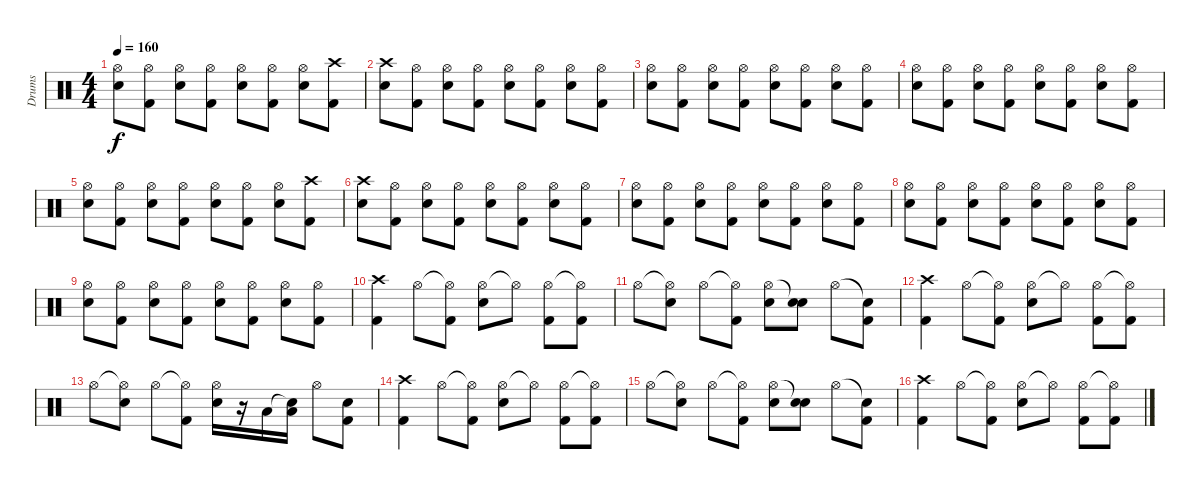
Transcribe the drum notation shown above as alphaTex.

\track ("Drums" "Drums") {instrument percussion}
\staff {score}
\articulation defaults
\ts (4 4)
\tempo 160
\clef neutral
\ks c
("Hi-Hat (open)" "Snare (hit) 2").8{dy f} ("Hi-Hat (open)" "Kick (hit) 2").8 ("Hi-Hat (open)" "Snare (hit) 2").8 ("Hi-Hat (open)" "Kick (hit) 2").8 ("Hi-Hat (open)" "Snare (hit) 2").8 ("Hi-Hat (open)" "Kick (hit) 2").8 ("Hi-Hat (open)" "Snare (hit) 2").8 ("Crash high (hit)" "Kick (hit) 2").8 |
("Crash high (hit)" "Snare (hit) 2").8 ("Hi-Hat (open)" "Kick (hit) 2").8 ("Hi-Hat (open)" "Snare (hit) 2").8 ("Hi-Hat (open)" "Kick (hit) 2").8 ("Hi-Hat (open)" "Snare (hit) 2").8 ("Hi-Hat (open)" "Kick (hit) 2").8 ("Hi-Hat (open)" "Snare (hit) 2").8 ("Hi-Hat (open)" "Kick (hit) 2").8 |
("Hi-Hat (open)" "Snare (hit) 2").8 ("Hi-Hat (open)" "Kick (hit) 2").8 ("Hi-Hat (open)" "Snare (hit) 2").8 ("Hi-Hat (open)" "Kick (hit) 2").8 ("Hi-Hat (open)" "Snare (hit) 2").8 ("Hi-Hat (open)" "Kick (hit) 2").8 ("Hi-Hat (open)" "Snare (hit) 2").8 ("Hi-Hat (open)" "Kick (hit) 2").8 |
("Hi-Hat (open)" "Snare (hit) 2").8 ("Hi-Hat (open)" "Kick (hit) 2").8 ("Hi-Hat (open)" "Snare (hit) 2").8 ("Hi-Hat (open)" "Kick (hit) 2").8 ("Hi-Hat (open)" "Snare (hit) 2").8 ("Hi-Hat (open)" "Kick (hit) 2").8 ("Hi-Hat (open)" "Snare (hit) 2").8 ("Hi-Hat (open)" "Kick (hit) 2").8 |
("Hi-Hat (open)" "Snare (hit) 2").8 ("Hi-Hat (open)" "Kick (hit) 2").8 ("Hi-Hat (open)" "Snare (hit) 2").8 ("Hi-Hat (open)" "Kick (hit) 2").8 ("Hi-Hat (open)" "Snare (hit) 2").8 ("Hi-Hat (open)" "Kick (hit) 2").8 ("Hi-Hat (open)" "Snare (hit) 2").8 ("Crash high (hit)" "Kick (hit) 2").8 |
("Crash high (hit)" "Snare (hit) 2").8 ("Hi-Hat (open)" "Kick (hit) 2").8 ("Hi-Hat (open)" "Snare (hit) 2").8 ("Hi-Hat (open)" "Kick (hit) 2").8 ("Hi-Hat (open)" "Snare (hit) 2").8 ("Hi-Hat (open)" "Kick (hit) 2").8 ("Hi-Hat (open)" "Snare (hit) 2").8 ("Hi-Hat (open)" "Kick (hit) 2").8 |
("Hi-Hat (open)" "Snare (hit) 2").8 ("Hi-Hat (open)" "Kick (hit) 2").8 ("Hi-Hat (open)" "Snare (hit) 2").8 ("Hi-Hat (open)" "Kick (hit) 2").8 ("Hi-Hat (open)" "Snare (hit) 2").8 ("Hi-Hat (open)" "Kick (hit) 2").8 ("Hi-Hat (open)" "Snare (hit) 2").8 ("Hi-Hat (open)" "Kick (hit) 2").8 |
("Hi-Hat (open)" "Snare (hit) 2").8 ("Hi-Hat (open)" "Kick (hit) 2").8 ("Hi-Hat (open)" "Snare (hit) 2").8 ("Hi-Hat (open)" "Kick (hit) 2").8 ("Hi-Hat (open)" "Snare (hit) 2").8 ("Hi-Hat (open)" "Kick (hit) 2").8 ("Hi-Hat (open)" "Snare (hit) 2").8 ("Hi-Hat (open)" "Kick (hit) 2").8 |
("Hi-Hat (open)" "Snare (hit) 2").8 ("Hi-Hat (open)" "Kick (hit) 2").8 ("Hi-Hat (open)" "Snare (hit) 2").8 ("Hi-Hat (open)" "Kick (hit) 2").8 ("Hi-Hat (open)" "Snare (hit) 2").8 ("Hi-Hat (open)" "Kick (hit) 2").8 ("Hi-Hat (open)" "Snare (hit) 2"{tr (38 32)}).8 ("Hi-Hat (open)" "Kick (hit) 2").8 |
("Crash high (hit)" "Kick (hit) 2").4 "Hi-Hat (open)".8 ("Hi-Hat (open)"{t} "Kick (hit) 2").8 ("Hi-Hat (open)" "Snare (hit) 2").8 "Hi-Hat (open)"{t}.8 ("Hi-Hat (open)" "Kick (hit) 2").8 ("Hi-Hat (open)"{t} "Kick (hit) 2").8 |
"Hi-Hat (open)".8 ("Hi-Hat (open)"{t} "Snare (hit) 2").8 "Hi-Hat (open)".8 ("Hi-Hat (open)"{t} "Kick (hit) 2").8 ("Hi-Hat (open)" "Snare (hit) 2").8 ("Snare (hit)"{t} "Snare (hit) 2").8 "Hi-Hat (open)".8 ("Snare (hit)"{t} "Kick (hit) 2").8 |
("Crash high (hit)" "Kick (hit) 2").4 "Hi-Hat (open)".8 ("Hi-Hat (open)"{t} "Kick (hit) 2").8 ("Hi-Hat (open)" "Snare (hit) 2").8 "Hi-Hat (open)"{t}.8 ("Hi-Hat (open)" "Kick (hit) 2").8 ("Hi-Hat (open)"{t} "Kick (hit) 2").8 |
"Hi-Hat (open)".8 ("Hi-Hat (open)"{t} "Snare (hit) 2").8 "Hi-Hat (open)".8 ("Hi-Hat (open)"{t} "Kick (hit) 2").8 ("Hi-Hat (open)" "Snare (hit) 2").16 r.16 "Low Tom (hit)".16 ("Snare (hit)"{t} "Low Floor Tom (hit)").16 "Hi-Hat (open)".8 ("Snare (hit) 2" "Kick (hit) 2").8 |
("Crash high (hit)" "Kick (hit) 2").4 "Hi-Hat (open)".8 ("Hi-Hat (open)"{t} "Kick (hit) 2").8 ("Hi-Hat (open)" "Snare (hit) 2").8 "Hi-Hat (open)"{t}.8 ("Hi-Hat (open)" "Kick (hit) 2").8 ("Hi-Hat (open)"{t} "Kick (hit) 2").8 |
"Hi-Hat (open)".8 ("Hi-Hat (open)"{t} "Snare (hit) 2").8 "Hi-Hat (open)".8 ("Hi-Hat (open)"{t} "Kick (hit) 2").8 ("Hi-Hat (open)" "Snare (hit) 2").8 ("Snare (hit)"{t} "Snare (hit) 2").8 "Hi-Hat (open)".8 ("Snare (hit)"{t} "Kick (hit) 2").8 |
("Crash high (hit)" "Kick (hit) 2").4 "Hi-Hat (open)".8 ("Hi-Hat (open)"{t} "Kick (hit) 2").8 ("Hi-Hat (open)" "Snare (hit) 2").8 "Hi-Hat (open)"{t}.8 ("Hi-Hat (open)" "Kick (hit) 2").8 ("Hi-Hat (open)"{t} "Kick (hit) 2").8
